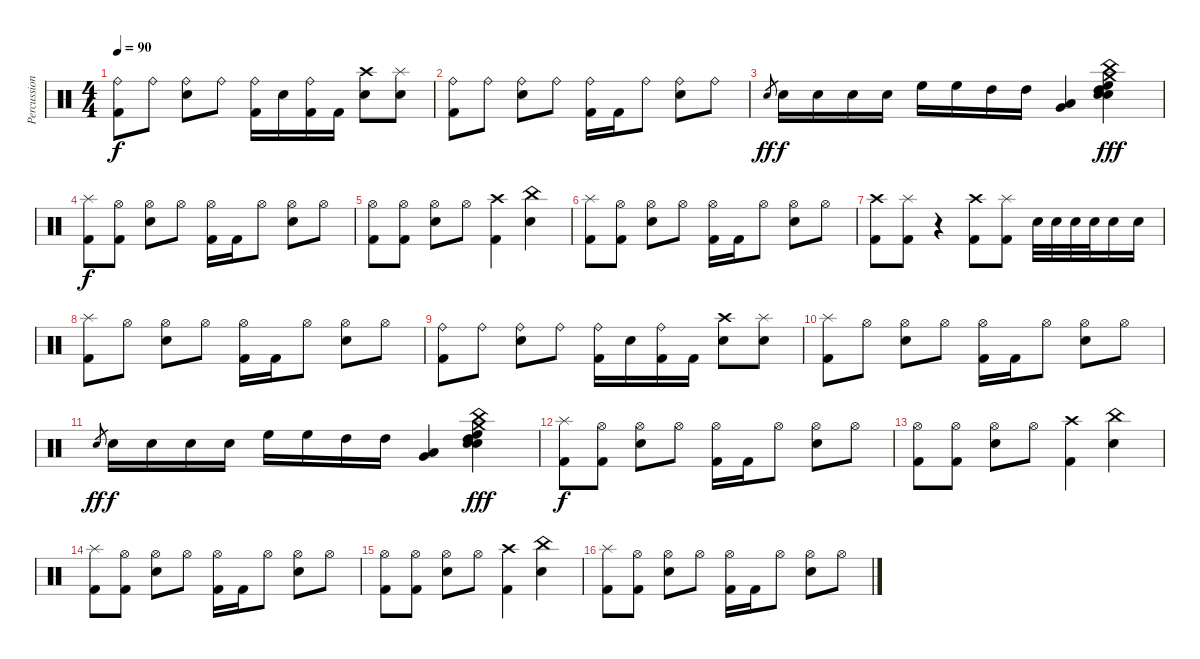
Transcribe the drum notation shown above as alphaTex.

\track ("Percussions" "Percussion") {instrument percussion}
\staff {score}
\articulation defaults
\ts (4 4)
\tempo 90
\clef neutral
\ks c
("Kick (hit) 2" "Ride (bell)").8{dy f} "Ride (bell)".8 ("Snare (hit) 2" "Ride (bell)").8 "Ride (bell)".8 ("Kick (hit) 2" "Ride (bell)").16 "Snare (hit) 2".16 ("Kick (hit) 2" "Ride (bell)").16 "Kick (hit) 2".16 ("Snare (hit) 2" "Crash high (hit)").8 ("Snare (hit) 2" "Splash (hit)").8 |
("Kick (hit) 2" "Ride (bell)").8 "Ride (bell)".8 ("Snare (hit) 2" "Ride (bell)").8 "Ride (bell)".8 ("Kick (hit) 2" "Ride (bell)").16 "Kick (hit) 2".16 "Ride (bell)".8 ("Snare (hit) 2" "Ride (bell)").8 "Ride (bell)".8 |
"Snare (hit) 2".8{gr dy ff} "Snare (hit) 2".16{dy f} "Snare (hit) 2".16 "Snare (hit) 2".16 "Snare (hit) 2".16 "High Floor Tom (hit)".16 "High Floor Tom (hit)".16 "High Tom (hit)".16 "High Tom (hit)".16 ("Very Low Tom (hit)" "Low Floor Tom (hit)").4 ("China (hit)" "High Tom (hit)" "High Floor Tom (hit)" "Snare (hit) 2" "Electric Snare (hit)" "Crash medium (hit)").4{dy fff} |
("Kick (hit) 2" "Splash (hit)").8{dy f} ("Kick (hit) 2" "Hi-Hat (open)").8 ("Snare (hit) 2" "Hi-Hat (open)").8 "Hi-Hat (open)".8 ("Kick (hit) 2" "Hi-Hat (open)").16 "Kick (hit) 2".16 "Hi-Hat (open)".8 ("Snare (hit) 2" "Hi-Hat (open)").8 "Hi-Hat (open)".8 |
("Kick (hit) 2" "Hi-Hat (open)").8 ("Kick (hit) 2" "Hi-Hat (open)").8 ("Snare (hit) 2" "Hi-Hat (open)").8 "Hi-Hat (open)".8 ("Kick (hit) 2" "Crash high (hit)").4 ("Snare (hit) 2" "China (hit)").4 |
("Kick (hit) 2" "Splash (hit)").8 ("Kick (hit) 2" "Hi-Hat (open)").8 ("Snare (hit) 2" "Hi-Hat (open)").8 "Hi-Hat (open)".8 ("Kick (hit) 2" "Hi-Hat (open)").16 "Kick (hit) 2".16 "Hi-Hat (open)".8 ("Snare (hit) 2" "Hi-Hat (open)").8 "Hi-Hat (open)".8 |
("Kick (hit) 2" "Crash high (hit)").8 ("Kick (hit) 2" "Splash (hit)").8 r.4 ("Kick (hit) 2" "Crash high (hit)").8 ("Kick (hit) 2" "Splash (hit)").8 "Snare (hit) 2".32 "Snare (hit) 2".32 "Snare (hit) 2".32 "Snare (hit) 2".32 "Snare (hit) 2".16 "Snare (hit) 2".16 |
("Kick (hit) 2" "Splash (hit)").8 "Hi-Hat (open)".8 ("Snare (hit) 2" "Hi-Hat (open)").8 "Hi-Hat (open)".8 ("Kick (hit) 2" "Hi-Hat (open)").16 "Kick (hit) 2".16 "Hi-Hat (open)".8 ("Snare (hit) 2" "Hi-Hat (open)").8 "Hi-Hat (open)".8 |
("Kick (hit) 2" "Ride (bell)").8 "Ride (bell)".8 ("Snare (hit) 2" "Ride (bell)").8 "Ride (bell)".8 ("Kick (hit) 2" "Ride (bell)").16 "Snare (hit) 2".16 ("Kick (hit) 2" "Ride (bell)").16 "Kick (hit) 2".16 ("Snare (hit) 2" "Crash high (hit)").8 ("Snare (hit) 2" "Splash (hit)").8 |
("Kick (hit) 2" "Splash (hit)").8 "Hi-Hat (open)".8 ("Snare (hit) 2" "Hi-Hat (open)").8 "Hi-Hat (open)".8 ("Kick (hit) 2" "Hi-Hat (open)").16 "Kick (hit) 2".16 "Hi-Hat (open)".8 ("Snare (hit) 2" "Hi-Hat (open)").8 "Hi-Hat (open)".8 |
"Snare (hit) 2".8{gr dy ff} "Snare (hit) 2".16{dy f} "Snare (hit) 2".16 "Snare (hit) 2".16 "Snare (hit) 2".16 "High Floor Tom (hit)".16 "High Floor Tom (hit)".16 "High Tom (hit)".16 "High Tom (hit)".16 ("Very Low Tom (hit)" "Low Floor Tom (hit)").4 ("China (hit)" "High Tom (hit)" "High Floor Tom (hit)" "Snare (hit) 2" "Electric Snare (hit)" "Crash medium (hit)").4{dy fff} |
("Kick (hit) 2" "Splash (hit)").8{dy f} ("Kick (hit) 2" "Hi-Hat (open)").8 ("Snare (hit) 2" "Hi-Hat (open)").8 "Hi-Hat (open)".8 ("Kick (hit) 2" "Hi-Hat (open)").16 "Kick (hit) 2".16 "Hi-Hat (open)".8 ("Snare (hit) 2" "Hi-Hat (open)").8 "Hi-Hat (open)".8 |
("Kick (hit) 2" "Hi-Hat (open)").8 ("Kick (hit) 2" "Hi-Hat (open)").8 ("Snare (hit) 2" "Hi-Hat (open)").8 "Hi-Hat (open)".8 ("Kick (hit) 2" "Crash high (hit)").4 ("Snare (hit) 2" "China (hit)").4 |
("Kick (hit) 2" "Splash (hit)").8 ("Kick (hit) 2" "Hi-Hat (open)").8 ("Snare (hit) 2" "Hi-Hat (open)").8 "Hi-Hat (open)".8 ("Kick (hit) 2" "Hi-Hat (open)").16 "Kick (hit) 2".16 "Hi-Hat (open)".8 ("Snare (hit) 2" "Hi-Hat (open)").8 "Hi-Hat (open)".8 |
("Kick (hit) 2" "Hi-Hat (open)").8 ("Kick (hit) 2" "Hi-Hat (open)").8 ("Snare (hit) 2" "Hi-Hat (open)").8 "Hi-Hat (open)".8 ("Kick (hit) 2" "Crash high (hit)").4 ("Snare (hit) 2" "China (hit)").4 |
("Kick (hit) 2" "Splash (hit)").8 ("Kick (hit) 2" "Hi-Hat (open)").8 ("Snare (hit) 2" "Hi-Hat (open)").8 "Hi-Hat (open)".8 ("Kick (hit) 2" "Hi-Hat (open)").16 "Kick (hit) 2".16 "Hi-Hat (open)".8 ("Snare (hit) 2" "Hi-Hat (open)").8 "Hi-Hat (open)".8
